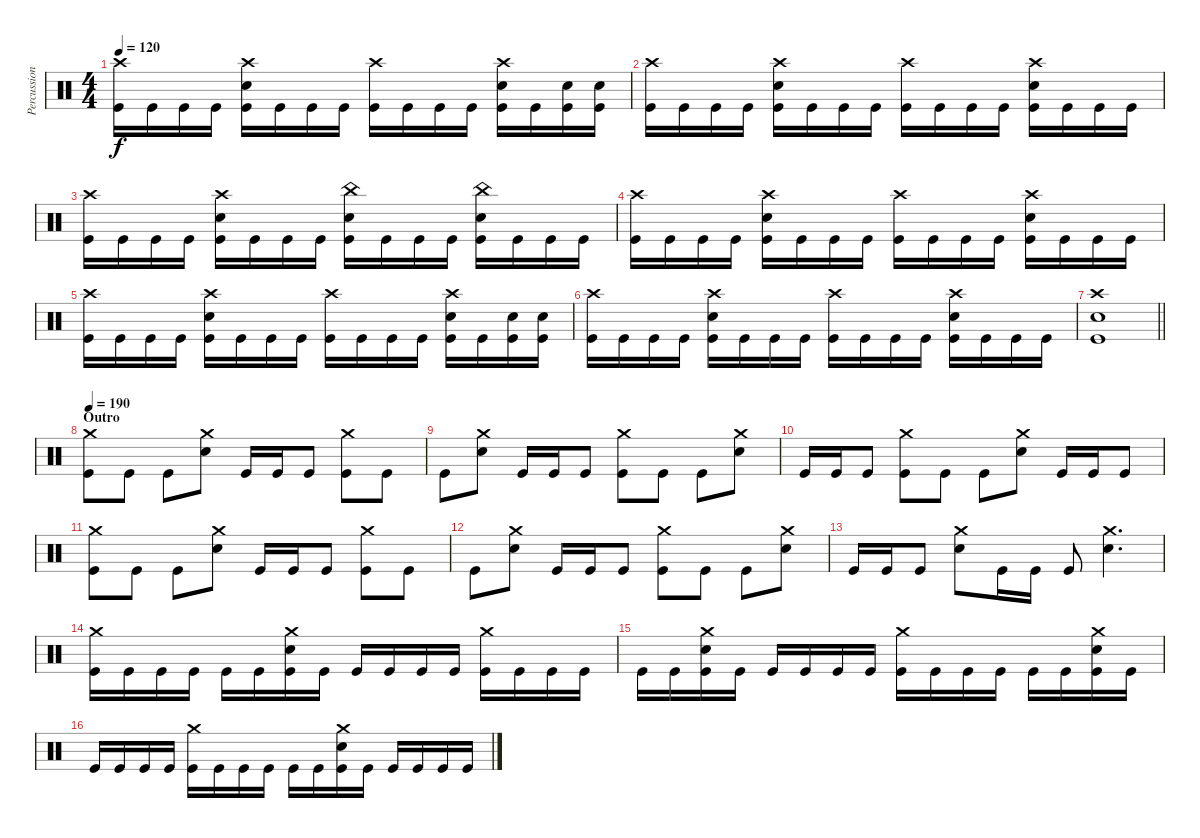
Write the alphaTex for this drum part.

\track ("Percussion" "Percussion") {instrument percussion}
\staff {score}
\articulation defaults
\ts (4 4)
\tempo 120
\clef neutral
\ks c
("Crash high (hit)" "Kick (hit)").16{dy f} "Kick (hit)".16 "Kick (hit)".16 "Kick (hit)".16 ("Crash high (hit)" "Snare (hit) 2" "Kick (hit)").16 "Kick (hit)".16 "Kick (hit)".16 "Kick (hit)".16 ("Crash high (hit)" "Kick (hit)").16 "Kick (hit)".16 "Kick (hit)".16 "Kick (hit)".16 ("Crash high (hit)" "Snare (hit) 2" "Kick (hit)").16 "Kick (hit)".16 ("Snare (hit) 2" "Kick (hit)").16 ("Snare (hit) 2" "Kick (hit)").16 |
("Crash high (hit)" "Kick (hit)").16 "Kick (hit)".16 "Kick (hit)".16 "Kick (hit)".16 ("Crash high (hit)" "Snare (hit) 2" "Kick (hit)").16 "Kick (hit)".16 "Kick (hit)".16 "Kick (hit)".16 ("Crash high (hit)" "Kick (hit)").16 "Kick (hit)".16 "Kick (hit)".16 "Kick (hit)".16 ("Crash high (hit)" "Snare (hit) 2" "Kick (hit)").16 "Kick (hit)".16 "Kick (hit)".16 "Kick (hit)".16 |
("Crash high (hit)" "Kick (hit)").16 "Kick (hit)".16 "Kick (hit)".16 "Kick (hit)".16 ("Crash high (hit)" "Snare (hit) 2" "Kick (hit)").16 "Kick (hit)".16 "Kick (hit)".16 "Kick (hit)".16 ("China (hit)" "Snare (hit) 2" "Kick (hit)").16 "Kick (hit)".16 "Kick (hit)".16 "Kick (hit)".16 ("China (hit)" "Snare (hit) 2" "Kick (hit)").16 "Kick (hit)".16 "Kick (hit)".16 "Kick (hit)".16 |
("Crash high (hit)" "Kick (hit)").16 "Kick (hit)".16 "Kick (hit)".16 "Kick (hit)".16 ("Crash high (hit)" "Snare (hit) 2" "Kick (hit)").16 "Kick (hit)".16 "Kick (hit)".16 "Kick (hit)".16 ("Crash high (hit)" "Kick (hit)").16 "Kick (hit)".16 "Kick (hit)".16 "Kick (hit)".16 ("Crash high (hit)" "Snare (hit) 2" "Kick (hit)").16 "Kick (hit)".16 "Kick (hit)".16 "Kick (hit)".16 |
("Crash high (hit)" "Kick (hit)").16 "Kick (hit)".16 "Kick (hit)".16 "Kick (hit)".16 ("Crash high (hit)" "Snare (hit) 2" "Kick (hit)").16 "Kick (hit)".16 "Kick (hit)".16 "Kick (hit)".16 ("Crash high (hit)" "Kick (hit)").16 "Kick (hit)".16 "Kick (hit)".16 "Kick (hit)".16 ("Crash high (hit)" "Snare (hit) 2" "Kick (hit)").16 "Kick (hit)".16 ("Snare (hit) 2" "Kick (hit)").16 ("Snare (hit) 2" "Kick (hit)").16 |
("Crash high (hit)" "Kick (hit)").16 "Kick (hit)".16 "Kick (hit)".16 "Kick (hit)".16 ("Crash high (hit)" "Snare (hit) 2" "Kick (hit)").16 "Kick (hit)".16 "Kick (hit)".16 "Kick (hit)".16 ("Crash high (hit)" "Kick (hit)").16 "Kick (hit)".16 "Kick (hit)".16 "Kick (hit)".16 ("Crash high (hit)" "Snare (hit) 2" "Kick (hit)").16 "Kick (hit)".16 "Kick (hit)".16 "Kick (hit)".16 |
\barLineRight lightlight
("Crash high (hit)" "Snare (hit) 2" "Kick (hit)").1 |
\section ("" "Outro")
\tempo 190
("Crash medium (hit)" "Kick (hit)").8 "Kick (hit)".8 "Kick (hit)".8 ("Crash medium (hit)" "Snare (hit) 2").8 "Kick (hit)".16 "Kick (hit)".16 "Kick (hit)".8 ("Crash medium (hit)" "Kick (hit)").8 "Kick (hit)".8 |
"Kick (hit)".8 ("Crash medium (hit)" "Snare (hit) 2").8 "Kick (hit)".16 "Kick (hit)".16 "Kick (hit)".8 ("Crash medium (hit)" "Kick (hit)").8 "Kick (hit)".8 "Kick (hit)".8 ("Crash medium (hit)" "Snare (hit) 2").8 |
"Kick (hit)".16 "Kick (hit)".16 "Kick (hit)".8 ("Crash medium (hit)" "Kick (hit)").8 "Kick (hit)".8 "Kick (hit)".8 ("Crash medium (hit)" "Snare (hit) 2").8 "Kick (hit)".16 "Kick (hit)".16 "Kick (hit)".8 |
("Crash medium (hit)" "Kick (hit)").8 "Kick (hit)".8 "Kick (hit)".8 ("Crash medium (hit)" "Snare (hit) 2").8 "Kick (hit)".16 "Kick (hit)".16 "Kick (hit)".8 ("Crash medium (hit)" "Kick (hit)").8 "Kick (hit)".8 |
"Kick (hit)".8 ("Crash medium (hit)" "Snare (hit) 2").8 "Kick (hit)".16 "Kick (hit)".16 "Kick (hit)".8 ("Crash medium (hit)" "Kick (hit)").8 "Kick (hit)".8 "Kick (hit)".8 ("Crash medium (hit)" "Snare (hit) 2").8 |
"Kick (hit)".16 "Kick (hit)".16 "Kick (hit)".8 ("Crash medium (hit)" "Snare (hit) 2").8 "Kick (hit)".16 "Kick (hit)".16 "Kick (hit)".8 ("Crash medium (hit)" "Snare (hit) 2").4{d} |
("Crash medium (hit)" "Kick (hit)").16 "Kick (hit)".16 "Kick (hit)".16 "Kick (hit)".16 "Kick (hit)".16 "Kick (hit)".16 ("Crash medium (hit)" "Snare (hit) 2" "Kick (hit)").16 "Kick (hit)".16 "Kick (hit)".16 "Kick (hit)".16 "Kick (hit)".16 "Kick (hit)".16 ("Crash medium (hit)" "Kick (hit)").16 "Kick (hit)".16 "Kick (hit)".16 "Kick (hit)".16 |
"Kick (hit)".16 "Kick (hit)".16 ("Crash medium (hit)" "Snare (hit) 2" "Kick (hit)").16 "Kick (hit)".16 "Kick (hit)".16 "Kick (hit)".16 "Kick (hit)".16 "Kick (hit)".16 ("Crash medium (hit)" "Kick (hit)").16 "Kick (hit)".16 "Kick (hit)".16 "Kick (hit)".16 "Kick (hit)".16 "Kick (hit)".16 ("Crash medium (hit)" "Snare (hit) 2" "Kick (hit)").16 "Kick (hit)".16 |
"Kick (hit)".16 "Kick (hit)".16 "Kick (hit)".16 "Kick (hit)".16 ("Crash medium (hit)" "Kick (hit)").16 "Kick (hit)".16 "Kick (hit)".16 "Kick (hit)".16 "Kick (hit)".16 "Kick (hit)".16 ("Crash medium (hit)" "Snare (hit) 2" "Kick (hit)").16 "Kick (hit)".16 "Kick (hit)".16 "Kick (hit)".16 "Kick (hit)".16 "Kick (hit)".16
